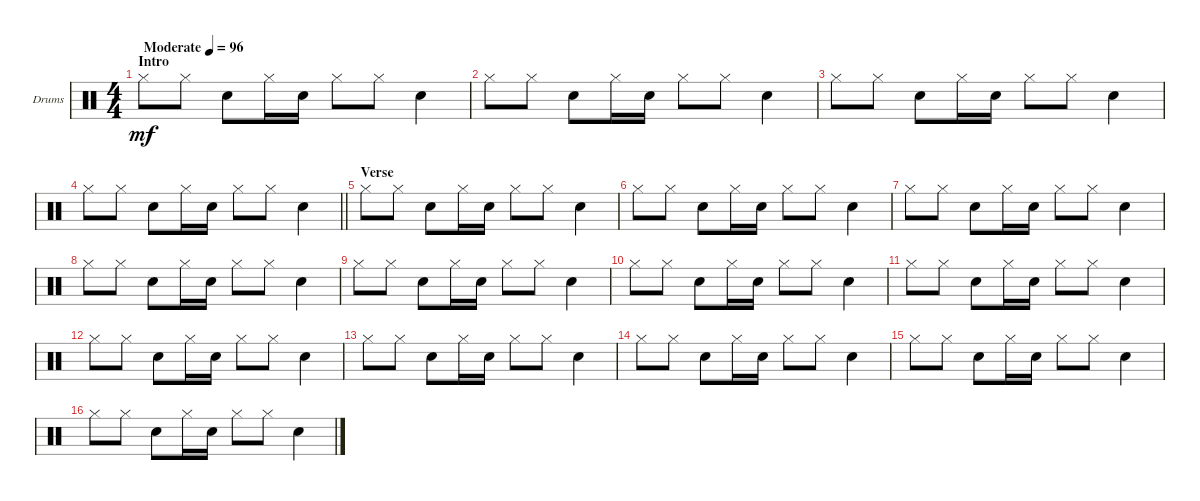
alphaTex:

\bracketExtendMode groupsimilarinstruments
\firstSystemTrackNameOrientation horizontal
\otherSystemsTrackNameOrientation horizontal
\track ("Drumkit" "Drums") {instrument percussion}
\staff {score}
\articulation defaults
\ts (4 4)
\beaming (8 2 2 2 2)
\section ("" "Intro")
\tempo (96 "Moderate")
\clef neutral
\ks c "Hi-Hat (closed)".8{dy mf} "Hi-Hat (closed)".8 "Snare (hit) 2".8 "Hi-Hat (closed)".16 "Snare (hit) 2".16{beam split} "Hi-Hat (closed)".8{beam merge} "Hi-Hat (closed)".8 "Snare (hit) 2".4
|
"Hi-Hat (closed)".8 "Hi-Hat (closed)".8 "Snare (hit) 2".8 "Hi-Hat (closed)".16 "Snare (hit) 2".16{beam split} "Hi-Hat (closed)".8{beam merge} "Hi-Hat (closed)".8 "Snare (hit) 2".4 |
"Hi-Hat (closed)".8 "Hi-Hat (closed)".8 "Snare (hit) 2".8 "Hi-Hat (closed)".16 "Snare (hit) 2".16{beam split} "Hi-Hat (closed)".8{beam merge} "Hi-Hat (closed)".8 "Snare (hit) 2".4 |
\barLineRight lightlight "Hi-Hat (closed)".8 "Hi-Hat (closed)".8 "Snare (hit) 2".8 "Hi-Hat (closed)".16 "Snare (hit) 2".16{beam split} "Hi-Hat (closed)".8{beam merge} "Hi-Hat (closed)".8 "Snare (hit) 2".4
|
\section ("" "Verse")
"Hi-Hat (closed)".8 "Hi-Hat (closed)".8 "Snare (hit) 2".8 "Hi-Hat (closed)".16 "Snare (hit) 2".16{beam split} "Hi-Hat (closed)".8{beam merge} "Hi-Hat (closed)".8 "Snare (hit) 2".4 |
"Hi-Hat (closed)".8 "Hi-Hat (closed)".8 "Snare (hit) 2".8 "Hi-Hat (closed)".16 "Snare (hit) 2".16{beam split} "Hi-Hat (closed)".8{beam merge} "Hi-Hat (closed)".8 "Snare (hit) 2".4 |
"Hi-Hat (closed)".8 "Hi-Hat (closed)".8 "Snare (hit) 2".8 "Hi-Hat (closed)".16 "Snare (hit) 2".16{beam split} "Hi-Hat (closed)".8{beam merge} "Hi-Hat (closed)".8 "Snare (hit) 2".4 |
"Hi-Hat (closed)".8 "Hi-Hat (closed)".8 "Snare (hit) 2".8 "Hi-Hat (closed)".16 "Snare (hit) 2".16{beam split} "Hi-Hat (closed)".8{beam merge} "Hi-Hat (closed)".8 "Snare (hit) 2".4 |
"Hi-Hat (closed)".8 "Hi-Hat (closed)".8 "Snare (hit) 2".8 "Hi-Hat (closed)".16 "Snare (hit) 2".16{beam split} "Hi-Hat (closed)".8{beam merge} "Hi-Hat (closed)".8 "Snare (hit) 2".4 |
"Hi-Hat (closed)".8 "Hi-Hat (closed)".8 "Snare (hit) 2".8 "Hi-Hat (closed)".16 "Snare (hit) 2".16{beam split} "Hi-Hat (closed)".8{beam merge} "Hi-Hat (closed)".8 "Snare (hit) 2".4 |
"Hi-Hat (closed)".8 "Hi-Hat (closed)".8 "Snare (hit) 2".8 "Hi-Hat (closed)".16 "Snare (hit) 2".16{beam split} "Hi-Hat (closed)".8{beam merge} "Hi-Hat (closed)".8 "Snare (hit) 2".4 |
"Hi-Hat (closed)".8 "Hi-Hat (closed)".8 "Snare (hit) 2".8 "Hi-Hat (closed)".16 "Snare (hit) 2".16{beam split} "Hi-Hat (closed)".8{beam merge} "Hi-Hat (closed)".8 "Snare (hit) 2".4 |
"Hi-Hat (closed)".8 "Hi-Hat (closed)".8 "Snare (hit) 2".8 "Hi-Hat (closed)".16 "Snare (hit) 2".16{beam split} "Hi-Hat (closed)".8{beam merge} "Hi-Hat (closed)".8 "Snare (hit) 2".4 |
"Hi-Hat (closed)".8 "Hi-Hat (closed)".8 "Snare (hit) 2".8 "Hi-Hat (closed)".16 "Snare (hit) 2".16{beam split} "Hi-Hat (closed)".8{beam merge} "Hi-Hat (closed)".8 "Snare (hit) 2".4 |
"Hi-Hat (closed)".8 "Hi-Hat (closed)".8 "Snare (hit) 2".8 "Hi-Hat (closed)".16 "Snare (hit) 2".16{beam split} "Hi-Hat (closed)".8{beam merge} "Hi-Hat (closed)".8 "Snare (hit) 2".4 |
"Hi-Hat (closed)".8 "Hi-Hat (closed)".8 "Snare (hit) 2".8 "Hi-Hat (closed)".16 "Snare (hit) 2".16{beam split} "Hi-Hat (closed)".8{beam merge} "Hi-Hat (closed)".8 "Snare (hit) 2".4
